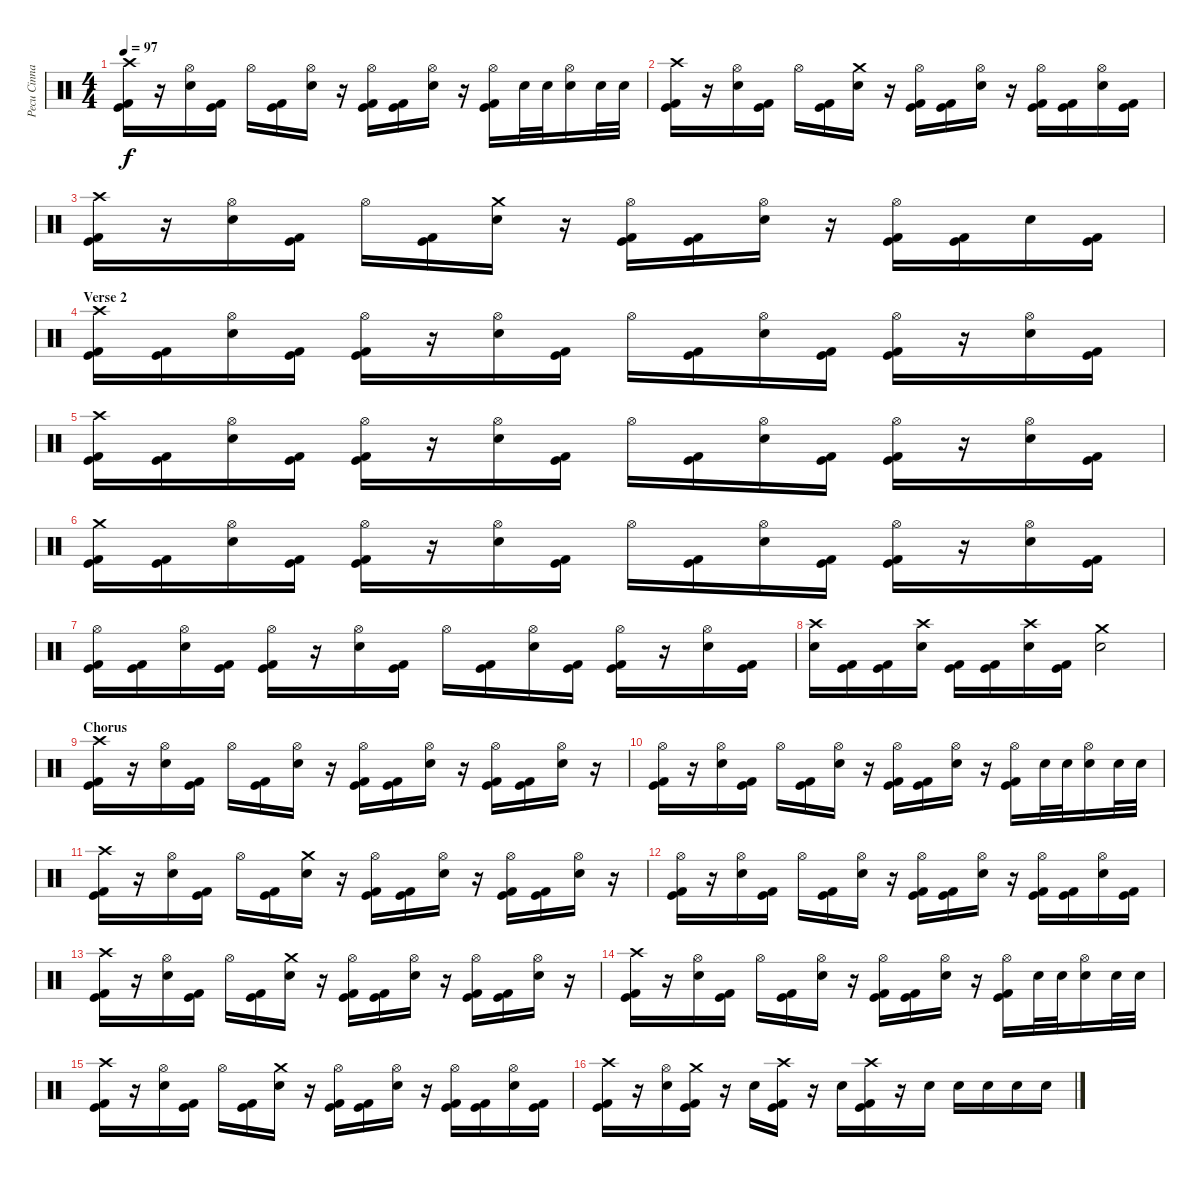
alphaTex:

\track ("Pecu Cinnari" "Pecu Cinna") {instrument percussion}
\staff {score}
\articulation defaults
\ts (4 4)
\tempo 97
\clef neutral
\ks c
("Crash high (hit)" "Kick (hit)" "Kick (hit) 2").16{dy f} r.16 ("Hi-Hat (open)" "Electric Snare (hit)").16 ("Kick (hit)" "Kick (hit) 2").16 "Hi-Hat (open)".16 ("Kick (hit)" "Kick (hit) 2").16 ("Hi-Hat (open)" "Electric Snare (hit)").16 r.16 ("Hi-Hat (open)" "Kick (hit)" "Kick (hit) 2").16 ("Kick (hit)" "Kick (hit) 2").16 ("Hi-Hat (open)" "Electric Snare (hit)").16 r.16 ("Hi-Hat (open)" "Kick (hit)" "Kick (hit) 2").16 "Electric Snare (hit)".32 "Electric Snare (hit)".32 ("Hi-Hat (open)" "Electric Snare (hit)").16 "Electric Snare (hit)".32 "Electric Snare (hit)".32 |
("Crash high (hit)" "Kick (hit)" "Kick (hit) 2").16 r.16 ("Hi-Hat (open)" "Electric Snare (hit)").16 ("Kick (hit)" "Kick (hit) 2").16 "Hi-Hat (open)".16 ("Kick (hit)" "Kick (hit) 2").16 ("Crash medium (hit)" "Electric Snare (hit)").16 r.16 ("Hi-Hat (open)" "Kick (hit)" "Kick (hit) 2").16 ("Kick (hit)" "Kick (hit) 2").16 ("Hi-Hat (open)" "Electric Snare (hit)").16 r.16 ("Hi-Hat (open)" "Kick (hit)" "Kick (hit) 2").16 ("Kick (hit)" "Kick (hit) 2").16 ("Hi-Hat (open)" "Electric Snare (hit)").16 ("Kick (hit)" "Kick (hit) 2").16 |
("Crash high (hit)" "Kick (hit)" "Kick (hit) 2").16 r.16 ("Hi-Hat (open)" "Electric Snare (hit)").16 ("Kick (hit)" "Kick (hit) 2").16 "Hi-Hat (open)".16 ("Kick (hit)" "Kick (hit) 2").16 ("Crash medium (hit)" "Electric Snare (hit)").16 r.16 ("Hi-Hat (open)" "Kick (hit)" "Kick (hit) 2").16 ("Kick (hit)" "Kick (hit) 2").16 ("Hi-Hat (open)" "Electric Snare (hit)").16 r.16 ("Hi-Hat (open)" "Kick (hit)" "Kick (hit) 2").16 ("Kick (hit)" "Kick (hit) 2").16 "Electric Snare (hit)".16 ("Kick (hit)" "Kick (hit) 2").16 |
\section ("" "Verse 2")
("Crash high (hit)" "Kick (hit)" "Kick (hit) 2").16 ("Kick (hit)" "Kick (hit) 2").16 ("Hi-Hat (open)" "Electric Snare (hit)").16 ("Kick (hit)" "Kick (hit) 2").16 ("Hi-Hat (open)" "Kick (hit)" "Kick (hit) 2").16 r.16 ("Hi-Hat (open)" "Electric Snare (hit)").16 ("Kick (hit)" "Kick (hit) 2").16 "Hi-Hat (open)".16 ("Kick (hit)" "Kick (hit) 2").16 ("Hi-Hat (open)" "Electric Snare (hit)").16 ("Kick (hit)" "Kick (hit) 2").16 ("Hi-Hat (open)" "Kick (hit)" "Kick (hit) 2").16 r.16 ("Hi-Hat (open)" "Electric Snare (hit)").16 ("Kick (hit)" "Kick (hit) 2").16 |
("Crash high (hit)" "Kick (hit)" "Kick (hit) 2").16 ("Kick (hit)" "Kick (hit) 2").16 ("Hi-Hat (open)" "Electric Snare (hit)").16 ("Kick (hit)" "Kick (hit) 2").16 ("Hi-Hat (open)" "Kick (hit)" "Kick (hit) 2").16 r.16 ("Hi-Hat (open)" "Electric Snare (hit)").16 ("Kick (hit)" "Kick (hit) 2").16 "Hi-Hat (open)".16 ("Kick (hit)" "Kick (hit) 2").16 ("Hi-Hat (open)" "Electric Snare (hit)").16 ("Kick (hit)" "Kick (hit) 2").16 ("Hi-Hat (open)" "Kick (hit)" "Kick (hit) 2").16 r.16 ("Hi-Hat (open)" "Electric Snare (hit)").16 ("Kick (hit)" "Kick (hit) 2").16 |
("Crash medium (hit)" "Kick (hit)" "Kick (hit) 2").16 ("Kick (hit)" "Kick (hit) 2").16 ("Hi-Hat (open)" "Electric Snare (hit)").16 ("Kick (hit)" "Kick (hit) 2").16 ("Hi-Hat (open)" "Kick (hit)" "Kick (hit) 2").16 r.16 ("Hi-Hat (open)" "Electric Snare (hit)").16 ("Kick (hit)" "Kick (hit) 2").16 "Hi-Hat (open)".16 ("Kick (hit)" "Kick (hit) 2").16 ("Hi-Hat (open)" "Electric Snare (hit)").16 ("Kick (hit)" "Kick (hit) 2").16 ("Hi-Hat (open)" "Kick (hit)" "Kick (hit) 2").16 r.16 ("Hi-Hat (open)" "Electric Snare (hit)").16 ("Kick (hit)" "Kick (hit) 2").16 |
("Hi-Hat (open)" "Kick (hit)" "Kick (hit) 2").16 ("Kick (hit)" "Kick (hit) 2").16 ("Hi-Hat (open)" "Electric Snare (hit)").16 ("Kick (hit)" "Kick (hit) 2").16 ("Hi-Hat (open)" "Kick (hit)" "Kick (hit) 2").16 r.16 ("Hi-Hat (open)" "Electric Snare (hit)").16 ("Kick (hit)" "Kick (hit) 2").16 "Hi-Hat (open)".16 ("Kick (hit)" "Kick (hit) 2").16 ("Hi-Hat (open)" "Electric Snare (hit)").16 ("Kick (hit)" "Kick (hit) 2").16 ("Hi-Hat (open)" "Kick (hit)" "Kick (hit) 2").16 r.16 ("Hi-Hat (open)" "Electric Snare (hit)").16 ("Kick (hit)" "Kick (hit) 2").16 |
("Crash high (hit)" "Electric Snare (hit)").16 ("Kick (hit)" "Kick (hit) 2").16 ("Kick (hit)" "Kick (hit) 2").16 ("Crash high (hit)" "Electric Snare (hit)").16 ("Kick (hit)" "Kick (hit) 2").16 ("Kick (hit)" "Kick (hit) 2").16 ("Crash high (hit)" "Electric Snare (hit)").16 ("Kick (hit)" "Kick (hit) 2").16 ("Crash medium (hit)" "Electric Snare (hit)").2 |
\section ("" "Chorus")
("Crash high (hit)" "Kick (hit)" "Kick (hit) 2").16 r.16 ("Hi-Hat (open)" "Electric Snare (hit)").16 ("Kick (hit)" "Kick (hit) 2").16 "Hi-Hat (open)".16 ("Kick (hit)" "Kick (hit) 2").16 ("Hi-Hat (open)" "Electric Snare (hit)").16 r.16 ("Hi-Hat (open)" "Kick (hit)" "Kick (hit) 2").16 ("Kick (hit)" "Kick (hit) 2").16 ("Hi-Hat (open)" "Electric Snare (hit)").16 r.16 ("Hi-Hat (open)" "Kick (hit)" "Kick (hit) 2").16 ("Kick (hit)" "Kick (hit) 2").16 ("Hi-Hat (open)" "Electric Snare (hit)").16 r.16 |
("Hi-Hat (open)" "Kick (hit)" "Kick (hit) 2").16 r.16 ("Hi-Hat (open)" "Electric Snare (hit)").16 ("Kick (hit)" "Kick (hit) 2").16 "Hi-Hat (open)".16 ("Kick (hit)" "Kick (hit) 2").16 ("Hi-Hat (open)" "Electric Snare (hit)").16 r.16 ("Hi-Hat (open)" "Kick (hit)" "Kick (hit) 2").16 ("Kick (hit)" "Kick (hit) 2").16 ("Hi-Hat (open)" "Electric Snare (hit)").16 r.16 ("Hi-Hat (open)" "Kick (hit)" "Kick (hit) 2").16 "Electric Snare (hit)".32 "Electric Snare (hit)".32 ("Hi-Hat (open)" "Electric Snare (hit)").16 "Electric Snare (hit)".32 "Electric Snare (hit)".32 |
("Crash high (hit)" "Kick (hit)" "Kick (hit) 2").16 r.16 ("Hi-Hat (open)" "Electric Snare (hit)").16 ("Kick (hit)" "Kick (hit) 2").16 "Hi-Hat (open)".16 ("Kick (hit)" "Kick (hit) 2").16 ("Crash medium (hit)" "Electric Snare (hit)").16 r.16 ("Hi-Hat (open)" "Kick (hit)" "Kick (hit) 2").16 ("Kick (hit)" "Kick (hit) 2").16 ("Hi-Hat (open)" "Electric Snare (hit)").16 r.16 ("Hi-Hat (open)" "Kick (hit)" "Kick (hit) 2").16 ("Kick (hit)" "Kick (hit) 2").16 ("Hi-Hat (open)" "Electric Snare (hit)").16 r.16 |
("Hi-Hat (open)" "Kick (hit)" "Kick (hit) 2").16 r.16 ("Hi-Hat (open)" "Electric Snare (hit)").16 ("Kick (hit)" "Kick (hit) 2").16 "Hi-Hat (open)".16 ("Kick (hit)" "Kick (hit) 2").16 ("Hi-Hat (open)" "Electric Snare (hit)").16 r.16 ("Hi-Hat (open)" "Kick (hit)" "Kick (hit) 2").16 ("Kick (hit)" "Kick (hit) 2").16 ("Hi-Hat (open)" "Electric Snare (hit)").16 r.16 ("Hi-Hat (open)" "Kick (hit)" "Kick (hit) 2").16 ("Kick (hit)" "Kick (hit) 2").16 ("Hi-Hat (open)" "Electric Snare (hit)").16 ("Kick (hit)" "Kick (hit) 2").16 |
("Crash high (hit)" "Kick (hit)" "Kick (hit) 2").16 r.16 ("Hi-Hat (open)" "Electric Snare (hit)").16 ("Kick (hit)" "Kick (hit) 2").16 "Hi-Hat (open)".16 ("Kick (hit)" "Kick (hit) 2").16 ("Crash medium (hit)" "Electric Snare (hit)").16 r.16 ("Hi-Hat (open)" "Kick (hit)" "Kick (hit) 2").16 ("Kick (hit)" "Kick (hit) 2").16 ("Hi-Hat (open)" "Electric Snare (hit)").16 r.16 ("Hi-Hat (open)" "Kick (hit)" "Kick (hit) 2").16 ("Kick (hit)" "Kick (hit) 2").16 ("Hi-Hat (open)" "Electric Snare (hit)").16 r.16 |
("Crash high (hit)" "Kick (hit)" "Kick (hit) 2").16 r.16 ("Hi-Hat (open)" "Electric Snare (hit)").16 ("Kick (hit)" "Kick (hit) 2").16 "Hi-Hat (open)".16 ("Kick (hit)" "Kick (hit) 2").16 ("Hi-Hat (open)" "Electric Snare (hit)").16 r.16 ("Hi-Hat (open)" "Kick (hit)" "Kick (hit) 2").16 ("Kick (hit)" "Kick (hit) 2").16 ("Hi-Hat (open)" "Electric Snare (hit)").16 r.16 ("Hi-Hat (open)" "Kick (hit)" "Kick (hit) 2").16 "Electric Snare (hit)".32 "Electric Snare (hit)".32 ("Hi-Hat (open)" "Electric Snare (hit)").16 "Electric Snare (hit)".32 "Electric Snare (hit)".32 |
("Crash high (hit)" "Kick (hit)" "Kick (hit) 2").16 r.16 ("Hi-Hat (open)" "Electric Snare (hit)").16 ("Kick (hit)" "Kick (hit) 2").16 "Hi-Hat (open)".16 ("Kick (hit)" "Kick (hit) 2").16 ("Crash medium (hit)" "Electric Snare (hit)").16 r.16 ("Hi-Hat (open)" "Kick (hit)" "Kick (hit) 2").16 ("Kick (hit)" "Kick (hit) 2").16 ("Hi-Hat (open)" "Electric Snare (hit)").16 r.16 ("Hi-Hat (open)" "Kick (hit)" "Kick (hit) 2").16 ("Kick (hit)" "Kick (hit) 2").16 ("Hi-Hat (open)" "Electric Snare (hit)").16 ("Kick (hit)" "Kick (hit) 2").16 |
("Crash high (hit)" "Kick (hit)" "Kick (hit) 2").16 r.16 ("Hi-Hat (open)" "Electric Snare (hit)").16 ("Crash medium (hit)" "Kick (hit)" "Kick (hit) 2").16 r.16 "Electric Snare (hit)".16 ("Crash high (hit)" "Kick (hit)" "Kick (hit) 2").16 r.16 "Electric Snare (hit)".16 ("Crash high (hit)" "Kick (hit)" "Kick (hit) 2").16 r.16 "Electric Snare (hit)".16 "Electric Snare (hit)".16 "Electric Snare (hit)".16 "Electric Snare (hit)".16 "Electric Snare (hit)".16
